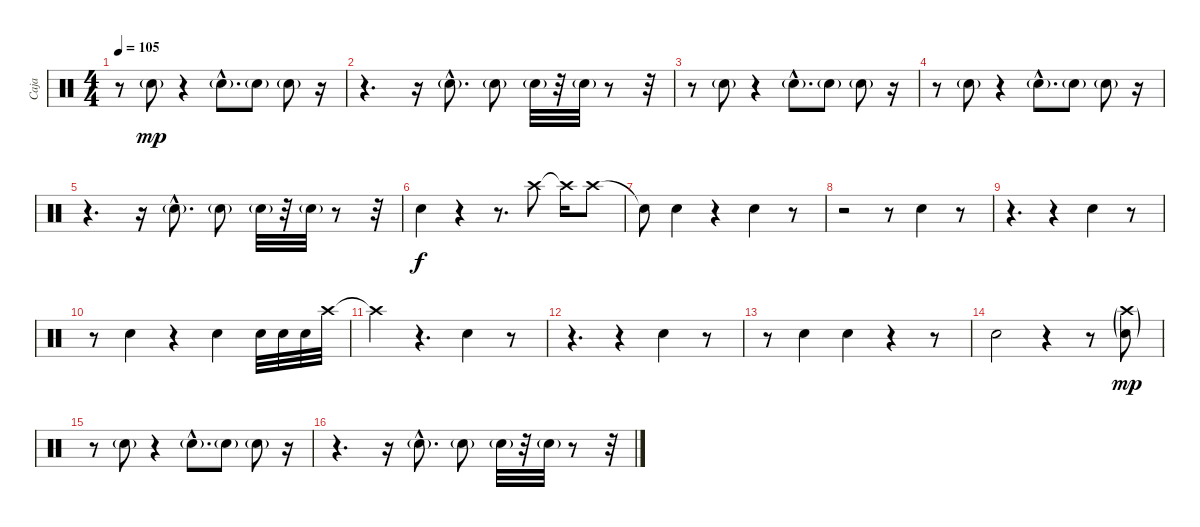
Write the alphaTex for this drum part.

\track ("Caja" "Caja") {instrument percussion}
\staff {score}
\articulation defaults
\ts (4 4)
\tempo 105
\clef neutral
\ks c
r.8{dy mp} "Electric Snare (hit)"{g}.8 r.4 "Electric Snare (hit)"{g hac}.8{d} "Electric Snare (hit)"{g}.8 "Electric Snare (hit)"{g}.8 r.16 |
r.4{d} r.16 "Electric Snare (hit)"{g hac}.8{d} "Electric Snare (hit)"{g}.8 "Electric Snare (hit)"{g}.32 r.32 "Electric Snare (hit)"{g}.32 r.8 r.32 |
r.8 "Electric Snare (hit)"{g}.8 r.4 "Electric Snare (hit)"{g hac}.8{d} "Electric Snare (hit)"{g}.8 "Electric Snare (hit)"{g}.8 r.16 |
r.8 "Electric Snare (hit)"{g}.8 r.4 "Electric Snare (hit)"{g hac}.8{d} "Electric Snare (hit)"{g}.8 "Electric Snare (hit)"{g}.8 r.16 |
r.4{d} r.16 "Electric Snare (hit)"{g hac}.8{d} "Electric Snare (hit)"{g}.8 "Electric Snare (hit)"{g}.32 r.32 "Electric Snare (hit)"{g}.32 r.8 r.32 |
"Electric Snare (hit)".4{dy f} r.4 r.8{d} "Crash high (hit)".8 "Crash high (hit)"{t}.16 "Crash high (hit)".8 |
"Snare (hit)"{t}.8 "Snare (hit) 2".4 r.4 "Snare (hit) 2".4 r.8 |
r.2 r.8 "Snare (hit) 2".4 r.8 |
r.4{d} r.4 "Snare (hit) 2".4 r.8 |
r.8 "Snare (hit) 2".4 r.4 "Snare (hit) 2".4 "Snare (hit) 2".32 "Snare (hit) 2".32 "Snare (hit) 2".32 "Crash high (hit)".32 |
"Crash high (hit)"{t}.4 r.4{d} "Snare (hit) 2".4 r.8 |
r.4{d} r.4 "Snare (hit) 2".4 r.8 |
r.8 "Snare (hit) 2".4 "Snare (hit) 2".4 r.4 r.8 |
"Electric Snare (hit)".2 r.4 r.8 ("Electric Snare (hit)"{g} "Crash high (hit)"{g}).8{dy mp} |
r.8 "Electric Snare (hit)"{g}.8 r.4 "Electric Snare (hit)"{g hac}.8{d} "Electric Snare (hit)"{g}.8 "Electric Snare (hit)"{g}.8 r.16 |
r.4{d} r.16 "Electric Snare (hit)"{g hac}.8{d} "Electric Snare (hit)"{g}.8 "Electric Snare (hit)"{g}.32 r.32 "Electric Snare (hit)"{g}.32 r.8 r.32
